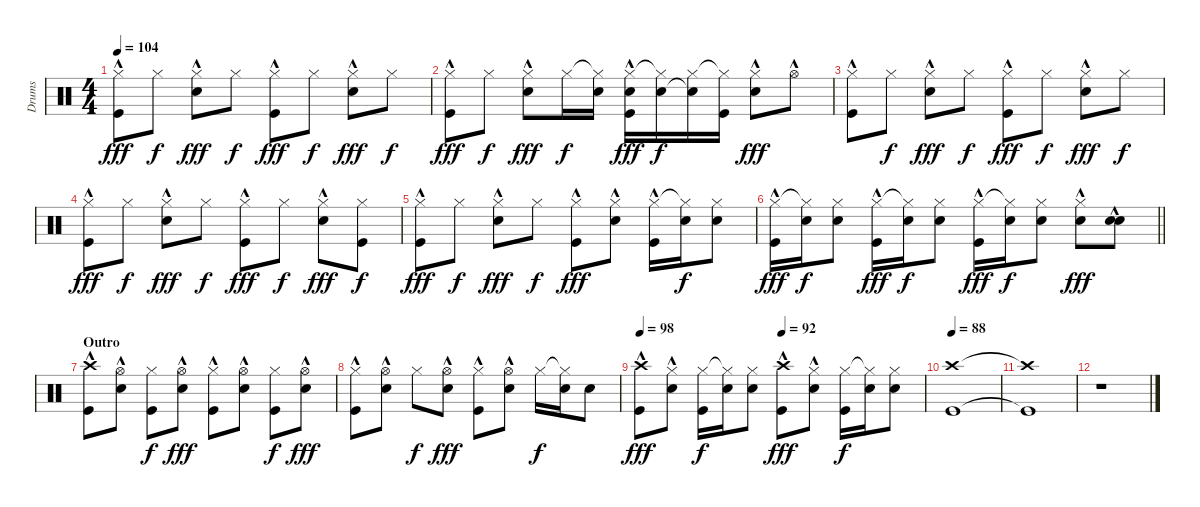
\track ("Drums" "Drums") {instrument percussion}
\staff {score}
\articulation defaults
\ts (4 4)
\tempo 104
\clef neutral
\ks c
("Hi-Hat (closed)"{hac} "Kick (hit)"{hac}).8{dy fff} "Hi-Hat (closed)".8{dy f} ("Hi-Hat (closed)"{hac} "Snare (hit) 2"{hac}).8{dy fff} "Hi-Hat (closed)".8{dy f} ("Hi-Hat (closed)"{hac} "Kick (hit)"{hac}).8{dy fff} "Hi-Hat (closed)".8{dy f} ("Hi-Hat (closed)"{hac} "Snare (hit) 2"{hac}).8{dy fff} "Hi-Hat (closed)".8{dy f} |
("Hi-Hat (closed)"{hac} "Kick (hit)"{hac}).8{dy fff} "Hi-Hat (closed)".8{dy f} ("Hi-Hat (closed)"{hac} "Snare (hit) 2"{hac}).8{dy fff} "Hi-Hat (closed)".16{dy f} ("Hi-Hat (closed)"{t} "Snare (hit) 2").16 ("Hi-Hat (closed)"{hac} "Snare (hit) 2" "Kick (hit)").16{dy fff} ("Hi-Hat (closed)"{t} "Snare (hit) 2").16{dy f} ("Hi-Hat (closed)" "Snare (hit) 2"{t}).16 ("Hi-Hat (closed)"{t} "Kick (hit)").16 ("Hi-Hat (closed)"{hac} "Snare (hit) 2"{hac}).8{dy fff} "Hi-Hat (open)"{hac}.8 |
("Hi-Hat (closed)"{hac} "Kick (hit)"{hac}).8 "Hi-Hat (closed)".8{dy f} ("Hi-Hat (closed)"{hac} "Snare (hit) 2"{hac}).8{dy fff} "Hi-Hat (closed)".8{dy f} ("Hi-Hat (closed)"{hac} "Kick (hit)"{hac}).8{dy fff} "Hi-Hat (closed)".8{dy f} ("Hi-Hat (closed)"{hac} "Snare (hit) 2"{hac}).8{dy fff} "Hi-Hat (closed)".8{dy f} |
("Hi-Hat (closed)"{hac} "Kick (hit)"{hac}).8{dy fff} "Hi-Hat (closed)".8{dy f} ("Hi-Hat (closed)"{hac} "Snare (hit) 2"{hac}).8{dy fff} "Hi-Hat (closed)".8{dy f} ("Hi-Hat (closed)"{hac} "Kick (hit)"{hac}).8{dy fff} "Hi-Hat (closed)".8{dy f} ("Hi-Hat (closed)"{hac} "Snare (hit) 2"{hac}).8{dy fff} ("Hi-Hat (closed)" "Kick (hit)").8{dy f} |
("Hi-Hat (closed)"{hac} "Kick (hit)"{hac}).8{dy fff} "Hi-Hat (closed)".8{dy f} ("Hi-Hat (closed)"{hac} "Snare (hit) 2"{hac}).8{dy fff} "Hi-Hat (closed)".8{dy f} ("Hi-Hat (closed)" "Kick (hit)"{hac}).8{dy fff} ("Hi-Hat (closed)"{hac} "Snare (hit) 2").8 ("Hi-Hat (closed)" "Kick (hit)"{hac}).16 ("Hi-Hat (closed)"{t} "Snare (hit) 2").16{dy f} ("Hi-Hat (closed)" "Snare (hit) 2").8 |
\barLineRight lightlight
("Hi-Hat (closed)" "Kick (hit)"{hac}).16{dy fff} ("Hi-Hat (closed)"{t} "Snare (hit) 2").16{dy f} ("Hi-Hat (closed)" "Snare (hit) 2").8 ("Hi-Hat (closed)" "Kick (hit)"{hac}).16{dy fff} ("Hi-Hat (closed)"{t} "Snare (hit) 2").16{dy f} ("Hi-Hat (closed)" "Snare (hit) 2").8 ("Hi-Hat (closed)" "Kick (hit)"{hac}).16{dy fff} ("Hi-Hat (closed)"{t} "Snare (hit) 2").16{dy f} ("Hi-Hat (closed)" "Snare (hit) 2").8 ("Hi-Hat (closed)" "Snare (hit) 2"{hac}).8{dy fff} ("Snare (hit) 2"{hac} "Snare (hit) 2"{hac}).8 |
\section ("" "Outro")
("Crash high (hit)"{hac} "Kick (hit)"{hac}).8 ("Hi-Hat (open)"{hac} "Snare (hit) 2"{hac}).8 ("Hi-Hat (closed)" "Kick (hit)").8{dy f} ("Hi-Hat (open)"{hac} "Snare (hit) 2"{hac}).8{dy fff} ("Hi-Hat (closed)" "Kick (hit)"{hac}).8 ("Hi-Hat (open)"{hac} "Snare (hit) 2"{hac}).8 ("Hi-Hat (closed)" "Kick (hit)").8{dy f} ("Hi-Hat (open)"{hac} "Snare (hit) 2"{hac}).8{dy fff} |
("Hi-Hat (closed)" "Kick (hit)"{hac}).8 ("Hi-Hat (open)"{hac} "Snare (hit) 2"{hac}).8 "Hi-Hat (closed)".8{dy f} ("Hi-Hat (open)"{hac} "Snare (hit) 2"{hac}).8{dy fff} ("Hi-Hat (closed)" "Kick (hit)"{hac}).8 ("Hi-Hat (open)"{hac} "Snare (hit) 2"{hac}).8 "Hi-Hat (closed)".16{dy f} ("Hi-Hat (closed)"{t} "Snare (hit) 2").16 "Snare (hit) 2".8 |
\tempo 98
\tempo (92 0.5)
("Crash high (hit)"{hac} "Kick (hit)").8{dy fff} ("Hi-Hat (closed)"{hac} "Snare (hit) 2").8 ("Hi-Hat (closed)" "Kick (hit)").16{dy f} ("Hi-Hat (closed)"{t} "Snare (hit) 2").16 ("Hi-Hat (closed)" "Snare (hit) 2").8 ("Crash high (hit)"{hac} "Kick (hit)").8{dy fff} ("Hi-Hat (closed)"{hac} "Snare (hit) 2").8 ("Hi-Hat (closed)" "Kick (hit)").16{dy f} ("Hi-Hat (closed)"{t} "Snare (hit) 2").16 ("Hi-Hat (closed)" "Snare (hit) 2").8 |
\tempo 88
("Crash high (hit)" "Kick (hit)").1 |
("Crash high (hit)"{t} "Kick (hit)"{t}).1 |
r.1
